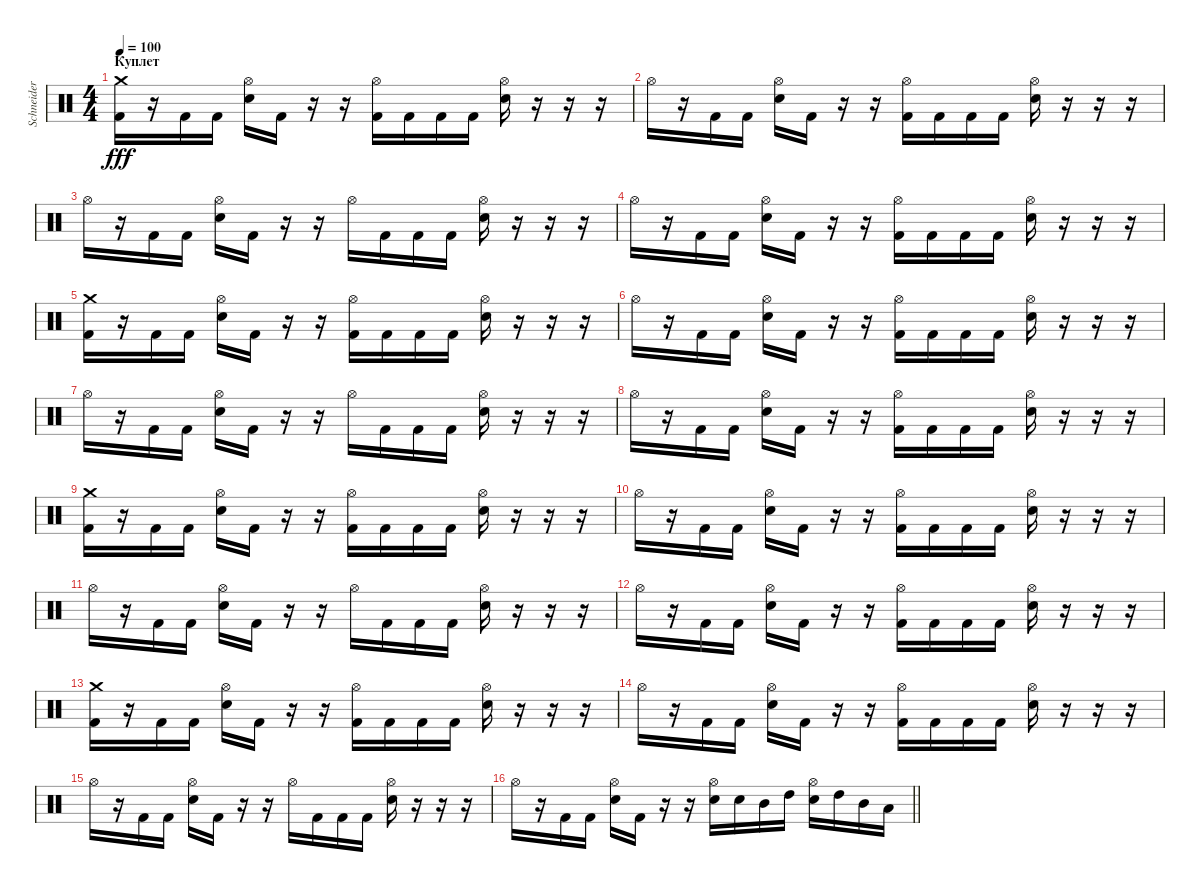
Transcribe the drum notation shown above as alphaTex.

\track ("Schneider" "Schneider") {instrument percussion}
\staff {score}
\articulation defaults
\ts (4 4)
\section ("" "Куплет")
\tempo 100
\clef neutral
\ks c
("Crash medium (hit)" "Kick (hit) 2").16{dy fff} r.16 "Kick (hit) 2".16 "Kick (hit) 2".16 ("Hi-Hat (open)" "Electric Snare (hit)").16 "Kick (hit) 2".16 r.16 r.16 ("Hi-Hat (open)" "Kick (hit) 2").16 "Kick (hit) 2".16 "Kick (hit) 2".16 "Kick (hit) 2".16 ("Hi-Hat (open)" "Electric Snare (hit)").16 r.16 r.16 r.16 |
"Hi-Hat (open)".16 r.16 "Kick (hit) 2".16 "Kick (hit) 2".16 ("Hi-Hat (open)" "Electric Snare (hit)").16 "Kick (hit) 2".16 r.16 r.16 ("Hi-Hat (open)" "Kick (hit) 2").16 "Kick (hit) 2".16 "Kick (hit) 2".16 "Kick (hit) 2".16 ("Hi-Hat (open)" "Electric Snare (hit)").16 r.16 r.16 r.16 |
"Hi-Hat (open)".16 r.16 "Kick (hit) 2".16 "Kick (hit) 2".16 ("Hi-Hat (open)" "Electric Snare (hit)").16 "Kick (hit) 2".16 r.16 r.16 "Hi-Hat (open)".16 "Kick (hit) 2".16 "Kick (hit) 2".16 "Kick (hit) 2".16 ("Hi-Hat (open)" "Electric Snare (hit)").16 r.16 r.16 r.16 |
"Hi-Hat (open)".16 r.16 "Kick (hit) 2".16 "Kick (hit) 2".16 ("Hi-Hat (open)" "Electric Snare (hit)").16 "Kick (hit) 2".16 r.16 r.16 ("Hi-Hat (open)" "Kick (hit) 2").16 "Kick (hit) 2".16 "Kick (hit) 2".16 "Kick (hit) 2".16 ("Hi-Hat (open)" "Electric Snare (hit)").16 r.16 r.16 r.16 |
("Crash medium (hit)" "Kick (hit) 2").16 r.16 "Kick (hit) 2".16 "Kick (hit) 2".16 ("Hi-Hat (open)" "Electric Snare (hit)").16 "Kick (hit) 2".16 r.16 r.16 ("Hi-Hat (open)" "Kick (hit) 2").16 "Kick (hit) 2".16 "Kick (hit) 2".16 "Kick (hit) 2".16 ("Hi-Hat (open)" "Electric Snare (hit)").16 r.16 r.16 r.16 |
"Hi-Hat (open)".16 r.16 "Kick (hit) 2".16 "Kick (hit) 2".16 ("Hi-Hat (open)" "Electric Snare (hit)").16 "Kick (hit) 2".16 r.16 r.16 ("Hi-Hat (open)" "Kick (hit) 2").16 "Kick (hit) 2".16 "Kick (hit) 2".16 "Kick (hit) 2".16 ("Hi-Hat (open)" "Electric Snare (hit)").16 r.16 r.16 r.16 |
"Hi-Hat (open)".16 r.16 "Kick (hit) 2".16 "Kick (hit) 2".16 ("Hi-Hat (open)" "Electric Snare (hit)").16 "Kick (hit) 2".16 r.16 r.16 "Hi-Hat (open)".16 "Kick (hit) 2".16 "Kick (hit) 2".16 "Kick (hit) 2".16 ("Hi-Hat (open)" "Electric Snare (hit)").16 r.16 r.16 r.16 |
"Hi-Hat (open)".16 r.16 "Kick (hit) 2".16 "Kick (hit) 2".16 ("Hi-Hat (open)" "Electric Snare (hit)").16 "Kick (hit) 2".16 r.16 r.16 ("Hi-Hat (open)" "Kick (hit) 2").16 "Kick (hit) 2".16 "Kick (hit) 2".16 "Kick (hit) 2".16 ("Hi-Hat (open)" "Electric Snare (hit)").16 r.16 r.16 r.16 |
("Crash medium (hit)" "Kick (hit) 2").16 r.16 "Kick (hit) 2".16 "Kick (hit) 2".16 ("Hi-Hat (open)" "Electric Snare (hit)").16 "Kick (hit) 2".16 r.16 r.16 ("Hi-Hat (open)" "Kick (hit) 2").16 "Kick (hit) 2".16 "Kick (hit) 2".16 "Kick (hit) 2".16 ("Hi-Hat (open)" "Electric Snare (hit)").16 r.16 r.16 r.16 |
"Hi-Hat (open)".16 r.16 "Kick (hit) 2".16 "Kick (hit) 2".16 ("Hi-Hat (open)" "Electric Snare (hit)").16 "Kick (hit) 2".16 r.16 r.16 ("Hi-Hat (open)" "Kick (hit) 2").16 "Kick (hit) 2".16 "Kick (hit) 2".16 "Kick (hit) 2".16 ("Hi-Hat (open)" "Electric Snare (hit)").16 r.16 r.16 r.16 |
"Hi-Hat (open)".16 r.16 "Kick (hit) 2".16 "Kick (hit) 2".16 ("Hi-Hat (open)" "Electric Snare (hit)").16 "Kick (hit) 2".16 r.16 r.16 "Hi-Hat (open)".16 "Kick (hit) 2".16 "Kick (hit) 2".16 "Kick (hit) 2".16 ("Hi-Hat (open)" "Electric Snare (hit)").16 r.16 r.16 r.16 |
"Hi-Hat (open)".16 r.16 "Kick (hit) 2".16 "Kick (hit) 2".16 ("Hi-Hat (open)" "Electric Snare (hit)").16 "Kick (hit) 2".16 r.16 r.16 ("Hi-Hat (open)" "Kick (hit) 2").16 "Kick (hit) 2".16 "Kick (hit) 2".16 "Kick (hit) 2".16 ("Hi-Hat (open)" "Electric Snare (hit)").16 r.16 r.16 r.16 |
("Crash medium (hit)" "Kick (hit) 2").16 r.16 "Kick (hit) 2".16 "Kick (hit) 2".16 ("Hi-Hat (open)" "Electric Snare (hit)").16 "Kick (hit) 2".16 r.16 r.16 ("Hi-Hat (open)" "Kick (hit) 2").16 "Kick (hit) 2".16 "Kick (hit) 2".16 "Kick (hit) 2".16 ("Hi-Hat (open)" "Electric Snare (hit)").16 r.16 r.16 r.16 |
"Hi-Hat (open)".16 r.16 "Kick (hit) 2".16 "Kick (hit) 2".16 ("Hi-Hat (open)" "Electric Snare (hit)").16 "Kick (hit) 2".16 r.16 r.16 ("Hi-Hat (open)" "Kick (hit) 2").16 "Kick (hit) 2".16 "Kick (hit) 2".16 "Kick (hit) 2".16 ("Hi-Hat (open)" "Electric Snare (hit)").16 r.16 r.16 r.16 |
"Hi-Hat (open)".16 r.16 "Kick (hit) 2".16 "Kick (hit) 2".16 ("Hi-Hat (open)" "Electric Snare (hit)").16 "Kick (hit) 2".16 r.16 r.16 "Hi-Hat (open)".16 "Kick (hit) 2".16 "Kick (hit) 2".16 "Kick (hit) 2".16 ("Hi-Hat (open)" "Electric Snare (hit)").16 r.16 r.16 r.16 |
\barLineRight lightlight "Hi-Hat (open)".16
r.16 "Kick (hit) 2".16 "Kick (hit) 2".16 ("Hi-Hat (open)" "Electric Snare (hit)").16 "Kick (hit) 2".16 r.16 r.16 ("Hi-Hat (open)" "Electric Snare (hit)").16 "Electric Snare (hit)".16 "Mid Tom (hit)".16 "High Tom (hit)".16 ("Hi-Hat (open)" "Electric Snare (hit)").16 "High Tom (hit)".16 "Mid Tom (hit)".16 "Low Tom (hit)".16
